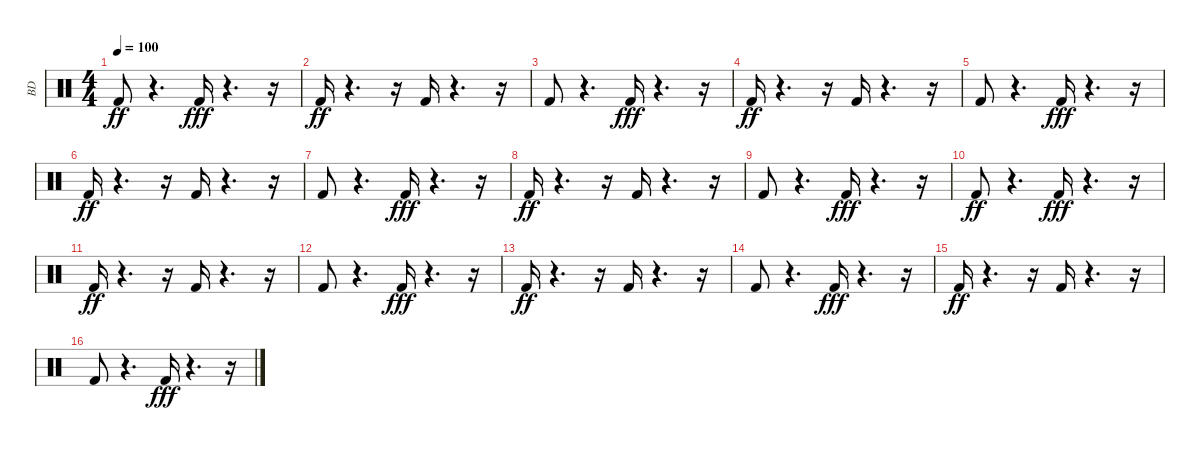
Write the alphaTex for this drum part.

\track ("BD" "BD") {instrument percussion}
\staff {score}
\articulation defaults
\ts (4 4)
\tempo 100
\clef neutral
\ks c "Kick (hit) 2".8{dy ff}
r.4{d} "Kick (hit) 2".16{dy fff} r.4{d} r.16 |
"Kick (hit) 2".16{dy ff} r.4{d} r.16 "Kick (hit) 2".16 r.4{d} r.16 |
"Kick (hit) 2".8 r.4{d} "Kick (hit) 2".16{dy fff} r.4{d} r.16 |
"Kick (hit) 2".16{dy ff} r.4{d} r.16 "Kick (hit) 2".16 r.4{d} r.16 |
"Kick (hit) 2".8 r.4{d} "Kick (hit) 2".16{dy fff} r.4{d} r.16 |
"Kick (hit) 2".16{dy ff} r.4{d} r.16 "Kick (hit) 2".16 r.4{d} r.16 |
"Kick (hit) 2".8 r.4{d} "Kick (hit) 2".16{dy fff} r.4{d} r.16 |
"Kick (hit) 2".16{dy ff} r.4{d} r.16 "Kick (hit) 2".16 r.4{d} r.16 |
"Kick (hit) 2".8 r.4{d} "Kick (hit) 2".16{dy fff} r.4{d} r.16 |
"Kick (hit) 2".8{dy ff} r.4{d} "Kick (hit) 2".16{dy fff} r.4{d} r.16 |
"Kick (hit) 2".16{dy ff} r.4{d} r.16 "Kick (hit) 2".16 r.4{d} r.16 |
"Kick (hit) 2".8 r.4{d} "Kick (hit) 2".16{dy fff} r.4{d} r.16 |
"Kick (hit) 2".16{dy ff} r.4{d} r.16 "Kick (hit) 2".16 r.4{d} r.16 |
"Kick (hit) 2".8 r.4{d} "Kick (hit) 2".16{dy fff} r.4{d} r.16 |
"Kick (hit) 2".16{dy ff} r.4{d} r.16 "Kick (hit) 2".16 r.4{d} r.16 |
"Kick (hit) 2".8 r.4{d} "Kick (hit) 2".16{dy fff} r.4{d} r.16
